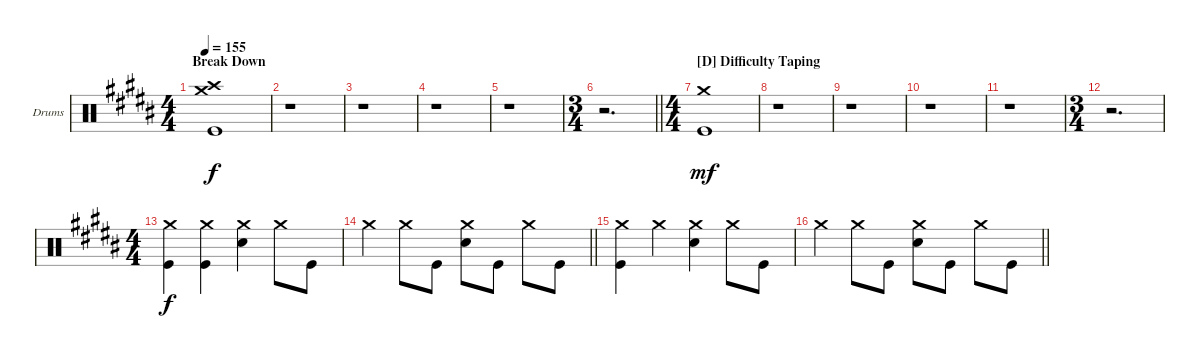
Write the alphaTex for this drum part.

\bracketExtendMode groupsimilarinstruments
\firstSystemTrackNameOrientation horizontal
\otherSystemsTrackNameOrientation horizontal
\track ("Navene Koperweis" "Drums") {instrument percussion}
\staff {score}
\articulation defaults
\ts (4 4)
\beaming (8 2 2 2 2)
\section ("" "Break Down")
\tempo 155
\clef neutral
\ks b
("Crash medium (hit)" "Crash high (hit)" "Kick (hit)").1{dy f} |
r.1 |
r.1 |
r.1 |
r.1 |
\ts (3 4)
\beaming (8 2 2 2)
\barLineRight lightlight
r.2{d} |
\ts (4 4)
\beaming (8 2 2 2 2)
\section ("D" "Difficulty Taping")
("Crash medium (hit)" "Kick (hit)").1{dy mf} |
r.1 |
r.1 |
r.1 |
r.1 |
\ts (3 4)
\beaming (8 2 2 2)
r.2{d} |
\ts (4 4)
\beaming (8 2 2 2 2)
("Crash medium (hit)" "Kick (hit)").4{dy f} ("Crash medium (hit)" "Kick (hit)").4 ("Crash medium (hit)" "Snare (hit) 2").4 "Crash medium (hit)".8 "Kick (hit)".8 |
\barLineRight lightlight "Crash medium (hit)".4 "Crash medium (hit)".8 "Kick (hit)".8
("Crash medium (hit)" "Snare (hit) 2").8 "Kick (hit)".8 "Crash medium (hit)".8 "Kick (hit)".8 |
("Crash medium (hit)" "Kick (hit)").4 "Crash medium (hit)".4 ("Crash medium (hit)" "Snare (hit) 2").4 "Crash medium (hit)".8 "Kick (hit)".8 |
\barLineRight lightlight "Crash medium (hit)".4 "Crash medium (hit)".8 "Kick (hit)".8
("Crash medium (hit)" "Snare (hit) 2").8 "Kick (hit)".8 "Crash medium (hit)".8 "Kick (hit)".8
